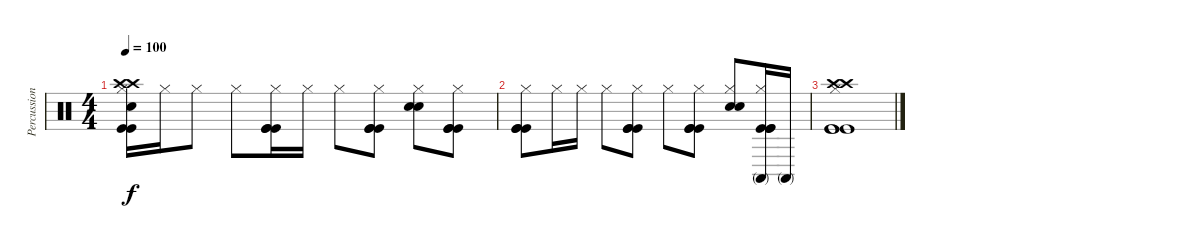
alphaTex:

\track ("Percussion" "Percussion") {instrument percussion}
\staff {score}
\articulation defaults
\ts (4 4)
\tempo 100
\clef neutral
\ks c
("Hi-Hat (closed)" "Crash high (hit)" "Crash high (hit)" "Electric Snare (hit)" "Kick (hit)" "Kick (hit)").16{dy f} "Hi-Hat (closed)".16 "Hi-Hat (closed)".8 "Hi-Hat (closed)".8 ("Hi-Hat (closed)" "Kick (hit)" "Kick (hit)" "Kick (hit)").16 "Hi-Hat (closed)".16 "Hi-Hat (closed)".8 ("Hi-Hat (closed)" "Kick (hit)" "Kick (hit)" "Kick (hit)").8 ("Hi-Hat (closed)" "Electric Snare (hit)" "Electric Snare (hit)").8 ("Hi-Hat (closed)" "Kick (hit)" "Kick (hit)" "Kick (hit)").8 |
("Hi-Hat (closed)" "Kick (hit)" "Kick (hit)" "Kick (hit)").8 "Hi-Hat (closed)".16 "Hi-Hat (closed)".16 "Hi-Hat (closed)".8 ("Hi-Hat (closed)" "Kick (hit)" "Kick (hit)" "Kick (hit)").8 "Hi-Hat (closed)".8 ("Hi-Hat (closed)" "Kick (hit)" "Kick (hit)" "Kick (hit)").8 ("Hi-Hat (closed)" "Electric Snare (hit)" "Electric Snare (hit)").8 ("Hi-Hat (closed)" "Conga high (mute)" "Kick (hit)" "Kick (hit)" "Kick (hit)").16 "Conga high (mute)".16 |
("Crash high (hit)" "Crash high (hit)" "Hi-Hat (closed)" "Kick (hit)" "Kick (hit)" "Kick (hit)").1
